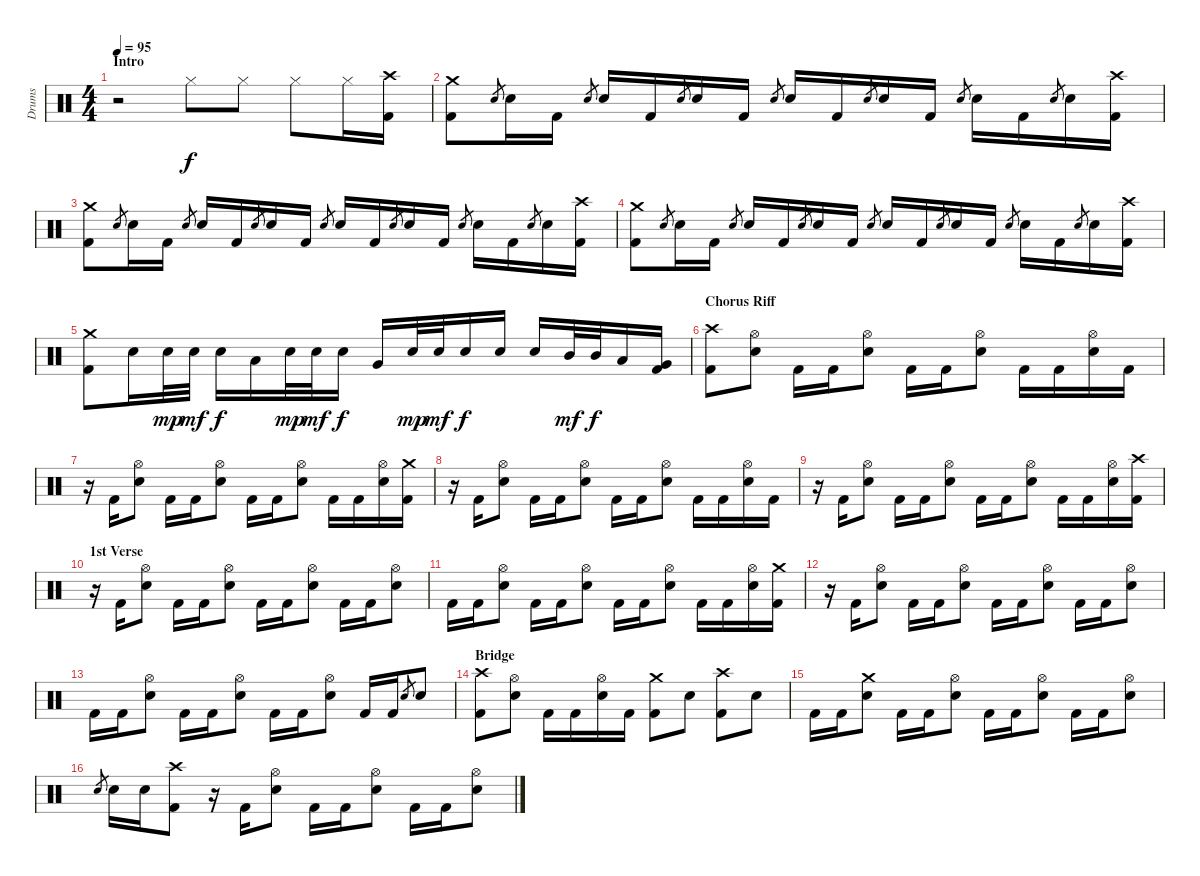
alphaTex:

\track ("Drums" "Drums") {instrument percussion}
\staff {score}
\articulation defaults
\ts (4 4)
\section ("" "Intro")
\tempo 95
\clef neutral
\ks c
r.2{dy f} "Hi-Hat (closed)".8 "Hi-Hat (closed)".8 "Hi-Hat (closed)".8 "Hi-Hat (closed)".16 ("Crash high (hit)" "Kick (hit) 2").16 |
("Crash medium (hit)" "Kick (hit) 2").8 "Snare (hit) 2".8{gr} "Snare (hit) 2".16 "Kick (hit) 2".16 "Snare (hit) 2".8{gr} "Snare (hit) 2".16 "Kick (hit) 2".16 "Snare (hit) 2".8{gr} "Snare (hit) 2".16 "Kick (hit) 2".16 "Snare (hit) 2".8{gr} "Snare (hit) 2".16 "Kick (hit) 2".16 "Snare (hit) 2".8{gr} "Snare (hit) 2".16 "Kick (hit) 2".16 "Snare (hit) 2".8{gr} "Snare (hit) 2".16 "Kick (hit) 2".16 "Snare (hit) 2".8{gr} "Snare (hit) 2".16 ("Crash high (hit)" "Kick (hit) 2").16 |
("Crash medium (hit)" "Kick (hit) 2").8 "Snare (hit) 2".8{gr} "Snare (hit) 2".16 "Kick (hit) 2".16 "Snare (hit) 2".8{gr} "Snare (hit) 2".16 "Kick (hit) 2".16 "Snare (hit) 2".8{gr} "Snare (hit) 2".16 "Kick (hit) 2".16 "Snare (hit) 2".8{gr} "Snare (hit) 2".16 "Kick (hit) 2".16 "Snare (hit) 2".8{gr} "Snare (hit) 2".16 "Kick (hit) 2".16 "Snare (hit) 2".8{gr} "Snare (hit) 2".16 "Kick (hit) 2".16 "Snare (hit) 2".8{gr} "Snare (hit) 2".16 ("Crash high (hit)" "Kick (hit) 2").16 |
("Crash medium (hit)" "Kick (hit) 2").8 "Snare (hit) 2".8{gr} "Snare (hit) 2".16 "Kick (hit) 2".16 "Snare (hit) 2".8{gr} "Snare (hit) 2".16 "Kick (hit) 2".16 "Snare (hit) 2".8{gr} "Snare (hit) 2".16 "Kick (hit) 2".16 "Snare (hit) 2".8{gr} "Snare (hit) 2".16 "Kick (hit) 2".16 "Snare (hit) 2".8{gr} "Snare (hit) 2".16 "Kick (hit) 2".16 "Snare (hit) 2".8{gr} "Snare (hit) 2".16 "Kick (hit) 2".16 "Snare (hit) 2".8{gr} "Snare (hit) 2".16 ("Crash high (hit)" "Kick (hit) 2").16 |
("Crash medium (hit)" "Kick (hit) 2").8 "Snare (hit) 2".16 "Snare (hit) 2".32{dy mp} "Snare (hit) 2".32{dy mf} "Snare (hit) 2".16{dy f} "Low Tom (hit)".16 "Snare (hit) 2".32{dy mp} "Snare (hit) 2".32{dy mf} "Snare (hit) 2".16{dy f} "Very Low Tom (hit)".16 "Snare (hit) 2".32{dy mp} "Snare (hit) 2".32{dy mf} "Snare (hit) 2".16{dy f} "Snare (hit) 2".16 "Snare (hit) 2".16 "Mid Tom (hit)".32{dy mf} "Mid Tom (hit)".32{dy f} "Low Tom (hit)".16 ("Very Low Tom (hit)" "Kick (hit) 2").16 |
\section ("" "Chorus Riff")
("Crash high (hit)" "Kick (hit) 2").8 ("Hi-Hat (open)" "Snare (hit) 2").8 "Kick (hit) 2".16 "Kick (hit) 2".16 ("Hi-Hat (open)" "Snare (hit) 2").8 "Kick (hit) 2".16 "Kick (hit) 2".16 ("Hi-Hat (open)" "Snare (hit) 2").8 "Kick (hit) 2".16 "Kick (hit) 2".16 ("Hi-Hat (open)" "Snare (hit) 2").16 "Kick (hit) 2".16 |
r.16 "Kick (hit) 2".16 ("Hi-Hat (open)" "Snare (hit) 2").8 "Kick (hit) 2".16 "Kick (hit) 2".16 ("Hi-Hat (open)" "Snare (hit) 2").8 "Kick (hit) 2".16 "Kick (hit) 2".16 ("Hi-Hat (open)" "Snare (hit) 2").8 "Kick (hit) 2".16 "Kick (hit) 2".16 ("Hi-Hat (open)" "Snare (hit) 2").16 ("Crash medium (hit)" "Kick (hit) 2").16 |
r.16 "Kick (hit) 2".16 ("Hi-Hat (open)" "Snare (hit) 2").8 "Kick (hit) 2".16 "Kick (hit) 2".16 ("Hi-Hat (open)" "Snare (hit) 2").8 "Kick (hit) 2".16 "Kick (hit) 2".16 ("Hi-Hat (open)" "Snare (hit) 2").8 "Kick (hit) 2".16 "Kick (hit) 2".16 ("Hi-Hat (open)" "Snare (hit) 2").16 "Kick (hit) 2".16 |
r.16 "Kick (hit) 2".16 ("Hi-Hat (open)" "Snare (hit) 2").8 "Kick (hit) 2".16 "Kick (hit) 2".16 ("Hi-Hat (open)" "Snare (hit) 2").8 "Kick (hit) 2".16 "Kick (hit) 2".16 ("Hi-Hat (open)" "Snare (hit) 2").8 "Kick (hit) 2".16 "Kick (hit) 2".16 ("Hi-Hat (open)" "Snare (hit) 2").16 ("Crash high (hit)" "Kick (hit) 2").16 |
\section ("" "1st Verse")
r.16 "Kick (hit) 2".16 ("Hi-Hat (open)" "Snare (hit) 2").8 "Kick (hit) 2".16 "Kick (hit) 2".16 ("Hi-Hat (open)" "Snare (hit) 2").8 "Kick (hit) 2".16 "Kick (hit) 2".16 ("Hi-Hat (open)" "Snare (hit) 2").8 "Kick (hit) 2".16 "Kick (hit) 2".16 ("Hi-Hat (open)" "Snare (hit) 2").8 |
"Kick (hit) 2".16 "Kick (hit) 2".16 ("Hi-Hat (open)" "Snare (hit) 2").8 "Kick (hit) 2".16 "Kick (hit) 2".16 ("Hi-Hat (open)" "Snare (hit) 2").8 "Kick (hit) 2".16 "Kick (hit) 2".16 ("Hi-Hat (open)" "Snare (hit) 2").8 "Kick (hit) 2".16 "Kick (hit) 2".16 ("Hi-Hat (open)" "Snare (hit) 2").16 ("Crash medium (hit)" "Kick (hit) 2").16 |
r.16 "Kick (hit) 2".16 ("Hi-Hat (open)" "Snare (hit) 2").8 "Kick (hit) 2".16 "Kick (hit) 2".16 ("Hi-Hat (open)" "Snare (hit) 2").8 "Kick (hit) 2".16 "Kick (hit) 2".16 ("Hi-Hat (open)" "Snare (hit) 2").8 "Kick (hit) 2".16 "Kick (hit) 2".16 ("Hi-Hat (open)" "Snare (hit) 2").8 |
"Kick (hit) 2".16 "Kick (hit) 2".16 ("Hi-Hat (open)" "Snare (hit) 2").8 "Kick (hit) 2".16 "Kick (hit) 2".16 ("Hi-Hat (open)" "Snare (hit) 2").8 "Kick (hit) 2".16 "Kick (hit) 2".16 ("Hi-Hat (open)" "Snare (hit) 2").8 "Kick (hit) 2".16 "Kick (hit) 2".16 "Snare (hit) 2".8{gr} "Snare (hit) 2".8 |
\section ("" "Bridge")
("Crash high (hit)" "Kick (hit) 2").8 ("Hi-Hat (open)" "Snare (hit) 2").8 "Kick (hit) 2".16 "Kick (hit) 2".16 ("Hi-Hat (open)" "Snare (hit) 2").16 "Kick (hit) 2".16 ("Crash medium (hit)" "Kick (hit) 2").8 "Snare (hit) 2".8 ("Crash high (hit)" "Kick (hit) 2").8 "Snare (hit) 2".8 |
"Kick (hit) 2".16 "Kick (hit) 2".16 ("Crash medium (hit)" "Snare (hit) 2").8 "Kick (hit) 2".16 "Kick (hit) 2".16 ("Hi-Hat (open)" "Snare (hit) 2").8 "Kick (hit) 2".16 "Kick (hit) 2".16 ("Hi-Hat (open)" "Snare (hit) 2").8 "Kick (hit) 2".16 "Kick (hit) 2".16 ("Hi-Hat (open)" "Snare (hit) 2").8 |
"Snare (hit) 2".8{gr} "Snare (hit) 2".16 "Snare (hit) 2".16 ("Crash high (hit)" "Kick (hit) 2").8 r.16 "Kick (hit) 2".16 ("Hi-Hat (open)" "Snare (hit) 2").8 "Kick (hit) 2".16 "Kick (hit) 2".16 ("Hi-Hat (open)" "Snare (hit) 2").8 "Kick (hit) 2".16 "Kick (hit) 2".16 ("Hi-Hat (open)" "Snare (hit) 2").8
